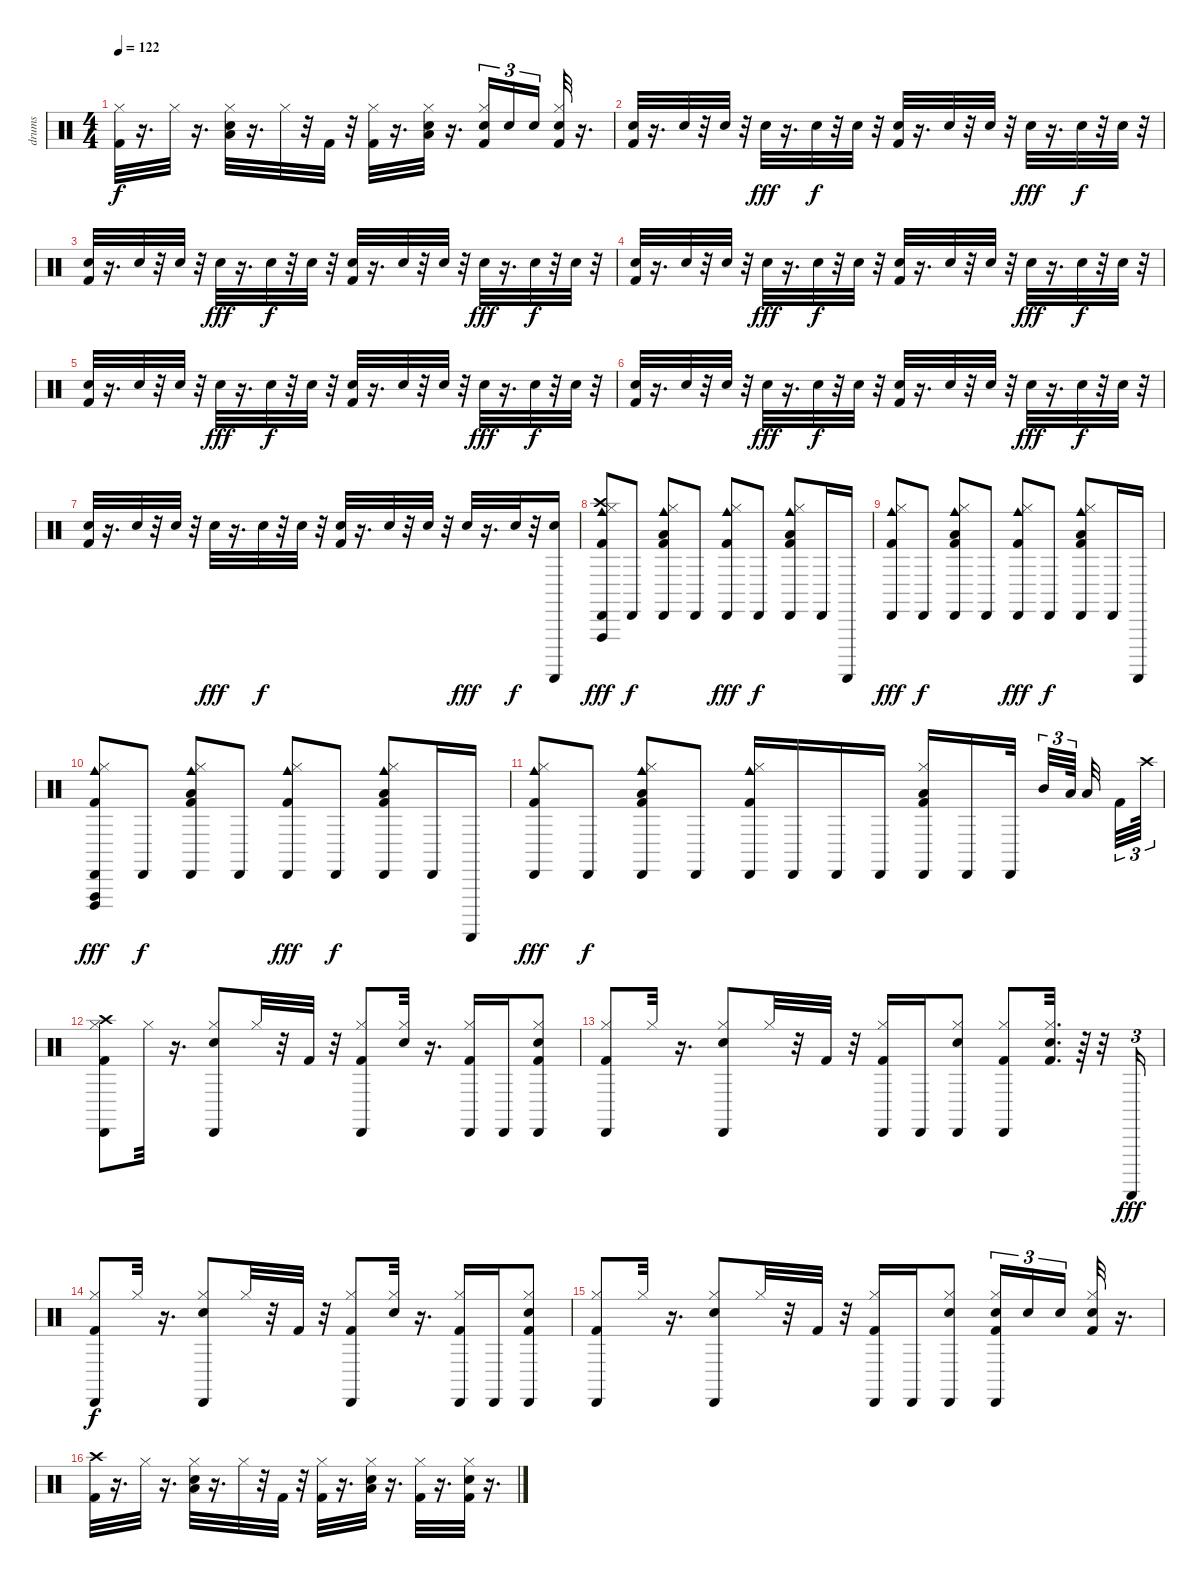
\track ("drums" "drums") {instrument percussion}
\staff {score}
\articulation defaults
\ts (4 4)
\tempo 122
\clef neutral
\ks c
("Kick (hit) 2" "Hi-Hat (closed)").32{dy f} r.16{d} "Hi-Hat (closed)".32 r.16{d} ("Low Floor Tom (hit)" "Hi-Hat (closed)" "Snare (hit) 2").32 r.16{d} "Hi-Hat (closed)".32 r.32 "Kick (hit) 2".32 r.32 ("Hi-Hat (closed)" "Kick (hit) 2").32 r.16{d} ("Low Floor Tom (hit)" "Hi-Hat (closed)" "Snare (hit) 2").32 r.16{d} ("Snare (hit) 2" "Hi-Hat (closed)" "Kick (hit) 2").16{tu (3 2)} "Snare (hit) 2".16{tu (3 2)} "Snare (hit) 2".16{tu (3 2)} ("Snare (hit) 2" "Hi-Hat (closed)" "Kick (hit) 2").32 r.16{d} |
("Snare (hit) 2" "Kick (hit) 2").32 r.16{d} "Snare (hit) 2".32 r.32 "Snare (hit) 2".32 r.32 "Snare (hit) 2".32{dy fff} r.16{d} "Snare (hit) 2".32{dy f} r.32 "Snare (hit) 2".32 r.32 ("Snare (hit) 2" "Kick (hit) 2").32 r.16{d} "Snare (hit) 2".32 r.32 "Snare (hit) 2".32 r.32 "Snare (hit) 2".32{dy fff} r.16{d} "Snare (hit) 2".32{dy f} r.32 "Snare (hit) 2".32 r.32 |
("Snare (hit) 2" "Kick (hit) 2").32 r.16{d} "Snare (hit) 2".32 r.32 "Snare (hit) 2".32 r.32 "Snare (hit) 2".32{dy fff} r.16{d} "Snare (hit) 2".32{dy f} r.32 "Snare (hit) 2".32 r.32 ("Snare (hit) 2" "Kick (hit) 2").32 r.16{d} "Snare (hit) 2".32 r.32 "Snare (hit) 2".32 r.32 "Snare (hit) 2".32{dy fff} r.16{d} "Snare (hit) 2".32{dy f} r.32 "Snare (hit) 2".32 r.32 |
("Snare (hit) 2" "Kick (hit) 2").32 r.16{d} "Snare (hit) 2".32 r.32 "Snare (hit) 2".32 r.32 "Snare (hit) 2".32{dy fff} r.16{d} "Snare (hit) 2".32{dy f} r.32 "Snare (hit) 2".32 r.32 ("Snare (hit) 2" "Kick (hit) 2").32 r.16{d} "Snare (hit) 2".32 r.32 "Snare (hit) 2".32 r.32 "Snare (hit) 2".32{dy fff} r.16{d} "Snare (hit) 2".32{dy f} r.32 "Snare (hit) 2".32 r.32 |
("Snare (hit) 2" "Kick (hit) 2").32 r.16{d} "Snare (hit) 2".32 r.32 "Snare (hit) 2".32 r.32 "Snare (hit) 2".32{dy fff} r.16{d} "Snare (hit) 2".32{dy f} r.32 "Snare (hit) 2".32 r.32 ("Snare (hit) 2" "Kick (hit) 2").32 r.16{d} "Snare (hit) 2".32 r.32 "Snare (hit) 2".32 r.32 "Snare (hit) 2".32{dy fff} r.16{d} "Snare (hit) 2".32{dy f} r.32 "Snare (hit) 2".32 r.32 |
("Snare (hit) 2" "Kick (hit) 2").32 r.16{d} "Snare (hit) 2".32 r.32 "Snare (hit) 2".32 r.32 "Snare (hit) 2".32{dy fff} r.16{d} "Snare (hit) 2".32{dy f} r.32 "Snare (hit) 2".32 r.32 ("Snare (hit) 2" "Kick (hit) 2").32 r.16{d} "Snare (hit) 2".32 r.32 "Snare (hit) 2".32 r.32 "Snare (hit) 2".32{dy fff} r.16{d} "Snare (hit) 2".32{dy f} r.32 "Snare (hit) 2".32 r.32 |
("Snare (hit) 2" "Kick (hit) 2").32 r.16{d} "Snare (hit) 2".32 r.32 "Snare (hit) 2".32 r.32 "Snare (hit) 2".32{dy fff} r.16{d} "Snare (hit) 2".32{dy f} r.32 "Snare (hit) 2".32 r.32 ("Snare (hit) 2" "Kick (hit) 2").32 r.16{d} "Snare (hit) 2".32 r.32 "Snare (hit) 2".32 r.32 "Snare (hit) 2".32{dy fff} r.16{d} "Snare (hit) 2".32{dy f} r.32 ("Snare (hit) 2" "Guiro (scrap-return)").16 |
("Vibraslap (hit)" "Cabasa (hit)" "Kick (hit) 2" "Crash high (hit)" "Cowbell medium (hit)" "Hi-Hat (closed)").8{dy fff} "Cabasa (hit)".8{dy f} ("Cabasa (hit)" "Cowbell medium (hit)" "Kick (hit) 2" "Low Floor Tom (hit)" "Hi-Hat (closed)").8 "Cabasa (hit)".8 ("Cabasa (hit)" "Kick (hit) 2" "Cowbell medium (hit)" "Hi-Hat (closed)").8{dy fff} "Cabasa (hit)".8{dy f} ("Cabasa (hit)" "Cowbell medium (hit)" "Kick (hit) 2" "Low Floor Tom (hit)" "Hi-Hat (closed)").8 "Cabasa (hit)".16 "Guiro (scrap-return)".16 |
("Cabasa (hit)" "Kick (hit) 2" "Cowbell medium (hit)" "Hi-Hat (closed)").8{dy fff} "Cabasa (hit)".8{dy f} ("Cabasa (hit)" "Cowbell medium (hit)" "Kick (hit) 2" "Low Floor Tom (hit)" "Hi-Hat (closed)").8 "Cabasa (hit)".8 ("Cabasa (hit)" "Kick (hit) 2" "Cowbell medium (hit)" "Hi-Hat (closed)").8{dy fff} "Cabasa (hit)".8{dy f} ("Cabasa (hit)" "Cowbell medium (hit)" "Kick (hit) 2" "Low Floor Tom (hit)" "Hi-Hat (closed)").8 "Cabasa (hit)".16 "Guiro (scrap-return)".16 |
("Cuica (open)" "Vibraslap (hit)" "Cabasa (hit)" "Kick (hit) 2" "Cowbell medium (hit)" "Hi-Hat (closed)").8{dy fff} "Cabasa (hit)".8{dy f} ("Cabasa (hit)" "Cowbell medium (hit)" "Kick (hit) 2" "Low Floor Tom (hit)" "Hi-Hat (closed)").8 "Cabasa (hit)".8 ("Cabasa (hit)" "Kick (hit) 2" "Cowbell medium (hit)" "Hi-Hat (closed)").8{dy fff} "Cabasa (hit)".8{dy f} ("Cabasa (hit)" "Cowbell medium (hit)" "Kick (hit) 2" "Low Floor Tom (hit)" "Hi-Hat (closed)").8 "Cabasa (hit)".16 "Guiro (scrap-return)".16 |
("Cabasa (hit)" "Kick (hit) 2" "Cowbell medium (hit)" "Hi-Hat (closed)").8{dy fff} "Cabasa (hit)".8{dy f} ("Cabasa (hit)" "Cowbell medium (hit)" "Kick (hit) 2" "Low Floor Tom (hit)" "Hi-Hat (closed)").8 "Cabasa (hit)".8 ("Kick (hit) 2" "Cowbell medium (hit)" "Cabasa (hit)" "Hi-Hat (closed)").16 "Cabasa (hit)".16 "Cabasa (hit)".16 "Cabasa (hit)".16 ("Kick (hit) 2" "Low Floor Tom (hit)" "Cabasa (hit)" "Hi-Hat (closed)").16 "Cabasa (hit)".16 "Cabasa (hit)".32 "Mid Tom (hit)".32{tu (3 2)} "Low Tom (hit)".64{tu (3 2)} "Low Floor Tom (hit)".32 "Kick (hit) 2".32{tu (3 2)} "Crash high (hit)".64{tu (3 2)} |
("Kick (hit) 2" "Crash high (hit)" "Cabasa (hit)" "Hi-Hat (closed)").8 "Hi-Hat (closed)".32 r.16{d} ("Hi-Hat (closed)" "Snare (hit) 2" "Cabasa (hit)").8 "Hi-Hat (closed)".32 r.32 "Kick (hit) 2".32 r.32 ("Hi-Hat (closed)" "Kick (hit) 2" "Cabasa (hit)").8 ("Hi-Hat (closed)" "Snare (hit) 2").32 r.16{d} ("Hi-Hat (closed)" "Kick (hit) 2" "Cabasa (hit)").16 "Cabasa (hit)".16 ("Snare (hit) 2" "Hi-Hat (closed)" "Kick (hit) 2" "Cabasa (hit)").8 |
("Cabasa (hit)" "Kick (hit) 2" "Hi-Hat (closed)").8 "Hi-Hat (closed)".32 r.16{d} ("Cabasa (hit)" "Hi-Hat (closed)" "Snare (hit) 2").8 "Hi-Hat (closed)".32 r.32 "Kick (hit) 2".32 r.32 ("Cabasa (hit)" "Hi-Hat (closed)" "Kick (hit) 2").16 "Cabasa (hit)".16 ("Cabasa (hit)" "Hi-Hat (closed)" "Snare (hit) 2").8 ("Cabasa (hit)" "Hi-Hat (closed)" "Kick (hit) 2").8 ("Snare (hit) 2" "Hi-Hat (closed)" "Kick (hit) 2").32{d} r.64 r.32 "Guiro (scrap-return)".16{tu (3 2) dy fff} |
("Cabasa (hit)" "Kick (hit) 2" "Hi-Hat (closed)").8{dy f} "Hi-Hat (closed)".32 r.16{d} ("Cabasa (hit)" "Hi-Hat (closed)" "Snare (hit) 2").8 "Hi-Hat (closed)".32 r.32 "Kick (hit) 2".32 r.32 ("Cabasa (hit)" "Hi-Hat (closed)" "Kick (hit) 2").8 ("Hi-Hat (closed)" "Snare (hit) 2").32 r.16{d} ("Cabasa (hit)" "Hi-Hat (closed)" "Kick (hit) 2").16 "Cabasa (hit)".16 ("Cabasa (hit)" "Snare (hit) 2" "Hi-Hat (closed)" "Kick (hit) 2").8 |
("Cabasa (hit)" "Kick (hit) 2" "Hi-Hat (closed)").8 "Hi-Hat (closed)".32 r.16{d} ("Cabasa (hit)" "Hi-Hat (closed)" "Snare (hit) 2").8 "Hi-Hat (closed)".32 r.32 "Kick (hit) 2".32 r.32 ("Cabasa (hit)" "Hi-Hat (closed)" "Kick (hit) 2").16 "Cabasa (hit)".16 ("Cabasa (hit)" "Hi-Hat (closed)" "Snare (hit) 2").8 ("Cabasa (hit)" "Snare (hit) 2" "Hi-Hat (closed)" "Kick (hit) 2").16{tu (3 2)} "Snare (hit) 2".16{tu (3 2)} "Snare (hit) 2".16{tu (3 2)} ("Snare (hit) 2" "Hi-Hat (closed)" "Kick (hit) 2").32 r.16{d} |
("Kick (hit) 2" "Crash high (hit)").32 r.16{d} "Hi-Hat (closed)".32 r.16{d} ("Low Floor Tom (hit)" "Hi-Hat (closed)" "Snare (hit) 2").32 r.16{d} "Hi-Hat (closed)".32 r.32 "Kick (hit) 2".32 r.32 ("Hi-Hat (closed)" "Kick (hit) 2").32 r.16{d} ("Low Floor Tom (hit)" "Hi-Hat (closed)" "Snare (hit) 2").32 r.16{d} ("Hi-Hat (closed)" "Kick (hit) 2").32 r.16{d} ("Snare (hit) 2" "Hi-Hat (closed)" "Kick (hit) 2").32 r.16{d}
